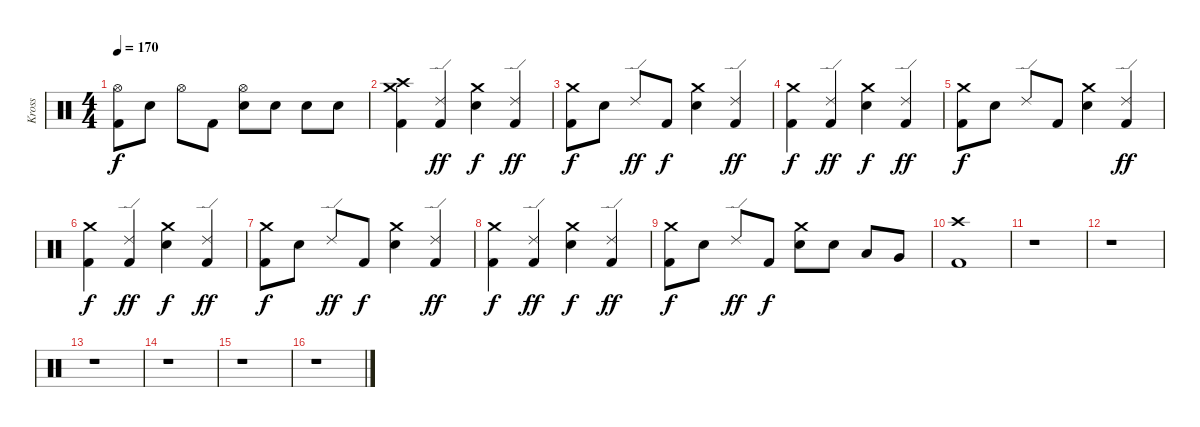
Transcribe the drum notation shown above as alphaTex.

\track ("Kross" "Kross") {instrument percussion}
\staff {score}
\articulation defaults
\ts (4 4)
\tempo 170
\clef neutral
\ks c
("Hi-Hat (open)" "Kick (hit) 2").8{dy f} "Electric Snare (hit)".8 "Hi-Hat (open)".8 "Kick (hit) 2".8 ("Hi-Hat (open)" "Electric Snare (hit)").8 "Electric Snare (hit)".8 "Electric Snare (hit)".8 "Electric Snare (hit)".8 |
("Crash high (hit)" "Crash medium (hit)" "Kick (hit) 2").4 ("Ride (edge) 2" "Kick (hit) 2").4{dy ff} ("Crash medium (hit)" "Electric Snare (hit)").4{dy f} ("Ride (edge) 2" "Kick (hit) 2").4{dy ff} |
("Crash medium (hit)" "Kick (hit) 2").8{dy f} "Electric Snare (hit)".8 "Ride (edge) 2".8{dy ff} "Kick (hit) 2".8{dy f} ("Crash medium (hit)" "Electric Snare (hit)").4 ("Ride (edge) 2" "Kick (hit) 2").4{dy ff} |
("Crash medium (hit)" "Kick (hit) 2").4{dy f} ("Ride (edge) 2" "Kick (hit) 2").4{dy ff} ("Crash medium (hit)" "Electric Snare (hit)").4{dy f} ("Ride (edge) 2" "Kick (hit) 2").4{dy ff} |
("Crash medium (hit)" "Kick (hit) 2").8{dy f} "Electric Snare (hit)".8 "Ride (edge) 2".8 "Kick (hit) 2".8 ("Crash medium (hit)" "Electric Snare (hit)").4 ("Ride (edge) 2" "Kick (hit) 2").4{dy ff} |
("Crash medium (hit)" "Kick (hit) 2").4{dy f} ("Ride (edge) 2" "Kick (hit) 2").4{dy ff} ("Crash medium (hit)" "Electric Snare (hit)").4{dy f} ("Ride (edge) 2" "Kick (hit) 2").4{dy ff} |
("Crash medium (hit)" "Kick (hit) 2").8{dy f} "Electric Snare (hit)".8 "Ride (edge) 2".8{dy ff} "Kick (hit) 2".8{dy f} ("Crash medium (hit)" "Electric Snare (hit)").4 ("Ride (edge) 2" "Kick (hit) 2").4{dy ff} |
("Crash medium (hit)" "Kick (hit) 2").4{dy f} ("Ride (edge) 2" "Kick (hit) 2").4{dy ff} ("Crash medium (hit)" "Electric Snare (hit)").4{dy f} ("Ride (edge) 2" "Kick (hit) 2").4{dy ff} |
("Crash medium (hit)" "Kick (hit) 2").8{dy f} "Electric Snare (hit)".8 "Ride (edge) 2".8{dy ff} "Kick (hit) 2".8{dy f} ("Crash medium (hit)" "Electric Snare (hit)").8 "Electric Snare (hit)".8 "Low Tom (hit)".8 "Very Low Tom (hit)".8 |
("Crash high (hit)" "Kick (hit) 2").1 |
r.1 |
r.1 |
r.1 |
r.1 |
r.1 |
r.1
